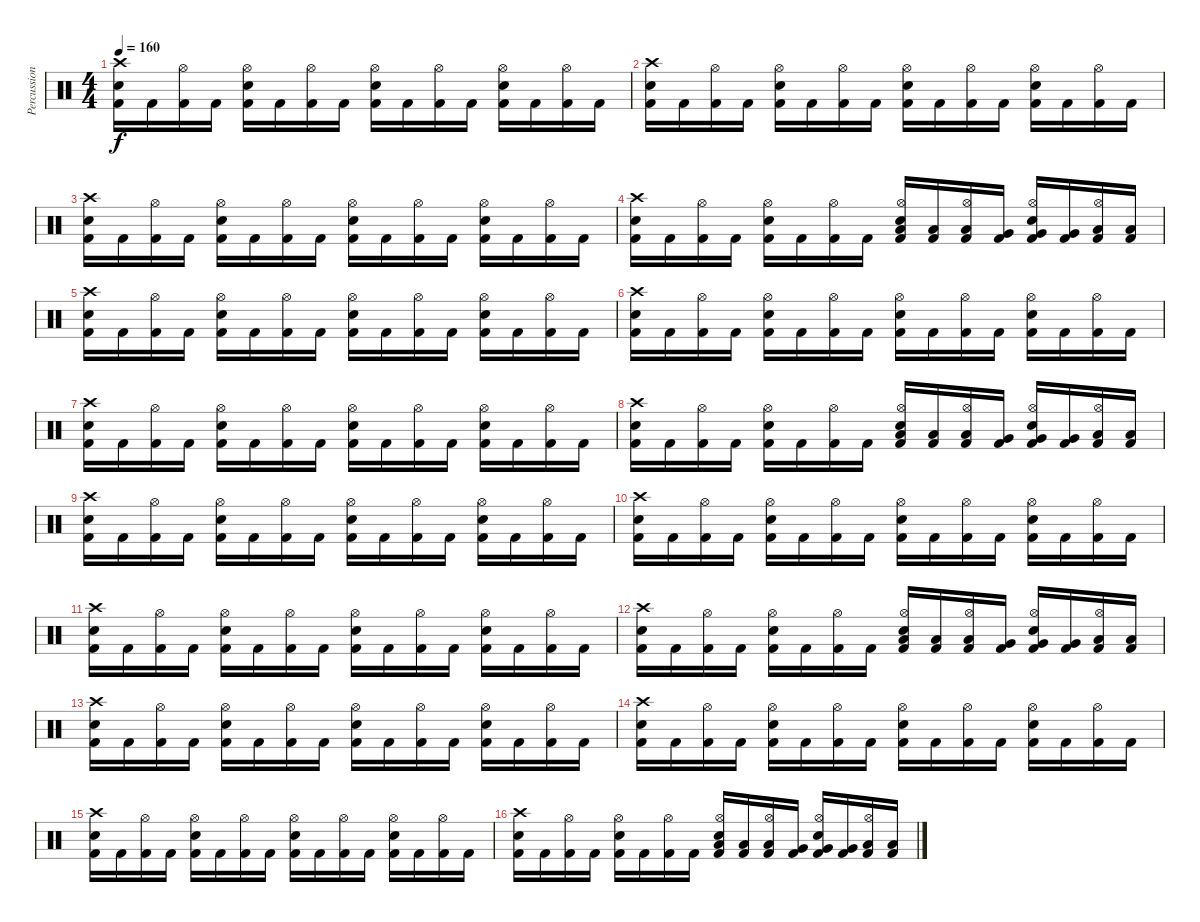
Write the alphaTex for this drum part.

\track ("Percussion" "Percussion") {instrument percussion}
\staff {score}
\articulation defaults
\ts (4 4)
\tempo 160
\clef neutral
\ks c
("Crash high (hit)" "Electric Snare (hit)" "Kick (hit) 2").16{dy f} "Kick (hit) 2".16 ("Hi-Hat (open)" "Kick (hit) 2").16 "Kick (hit) 2".16 ("Hi-Hat (open)" "Electric Snare (hit)" "Kick (hit) 2").16 "Kick (hit) 2".16 ("Hi-Hat (open)" "Kick (hit) 2").16 "Kick (hit) 2".16 ("Hi-Hat (open)" "Electric Snare (hit)" "Kick (hit) 2").16 "Kick (hit) 2".16 ("Hi-Hat (open)" "Kick (hit) 2").16 "Kick (hit) 2".16 ("Hi-Hat (open)" "Electric Snare (hit)" "Kick (hit) 2").16 "Kick (hit) 2".16 ("Hi-Hat (open)" "Kick (hit) 2").16 "Kick (hit) 2".16 |
("Crash high (hit)" "Electric Snare (hit)" "Kick (hit) 2").16 "Kick (hit) 2".16 ("Hi-Hat (open)" "Kick (hit) 2").16 "Kick (hit) 2".16 ("Hi-Hat (open)" "Electric Snare (hit)" "Kick (hit) 2").16 "Kick (hit) 2".16 ("Hi-Hat (open)" "Kick (hit) 2").16 "Kick (hit) 2".16 ("Hi-Hat (open)" "Electric Snare (hit)" "Kick (hit) 2").16 "Kick (hit) 2".16 ("Hi-Hat (open)" "Kick (hit) 2").16 "Kick (hit) 2".16 ("Hi-Hat (open)" "Electric Snare (hit)" "Kick (hit) 2").16 "Kick (hit) 2".16 ("Hi-Hat (open)" "Kick (hit) 2").16 "Kick (hit) 2".16 |
("Crash high (hit)" "Electric Snare (hit)" "Kick (hit) 2").16 "Kick (hit) 2".16 ("Hi-Hat (open)" "Kick (hit) 2").16 "Kick (hit) 2".16 ("Hi-Hat (open)" "Electric Snare (hit)" "Kick (hit) 2").16 "Kick (hit) 2".16 ("Hi-Hat (open)" "Kick (hit) 2").16 "Kick (hit) 2".16 ("Hi-Hat (open)" "Electric Snare (hit)" "Kick (hit) 2").16 "Kick (hit) 2".16 ("Hi-Hat (open)" "Kick (hit) 2").16 "Kick (hit) 2".16 ("Hi-Hat (open)" "Electric Snare (hit)" "Kick (hit) 2").16 "Kick (hit) 2".16 ("Hi-Hat (open)" "Kick (hit) 2").16 "Kick (hit) 2".16 |
("Crash high (hit)" "Electric Snare (hit)" "Kick (hit) 2").16 "Kick (hit) 2".16 ("Hi-Hat (open)" "Kick (hit) 2").16 "Kick (hit) 2".16 ("Hi-Hat (open)" "Electric Snare (hit)" "Kick (hit) 2").16 "Kick (hit) 2".16 ("Hi-Hat (open)" "Kick (hit) 2").16 "Kick (hit) 2".16 ("Hi-Hat (open)" "Low Tom (hit)" "Electric Snare (hit)" "Kick (hit) 2").16 ("Low Tom (hit)" "Kick (hit) 2").16 ("Hi-Hat (open)" "Low Tom (hit)" "Kick (hit) 2").16 ("Very Low Tom (hit)" "Kick (hit) 2").16 ("Hi-Hat (open)" "Very Low Tom (hit)" "Electric Snare (hit)" "Kick (hit) 2").16 ("Very Low Tom (hit)" "Kick (hit) 2").16 ("Hi-Hat (open)" "Low Floor Tom (hit)" "Kick (hit) 2").16 ("Low Floor Tom (hit)" "Kick (hit) 2").16 |
("Crash high (hit)" "Electric Snare (hit)" "Kick (hit) 2").16 "Kick (hit) 2".16 ("Hi-Hat (open)" "Kick (hit) 2").16 "Kick (hit) 2".16 ("Hi-Hat (open)" "Electric Snare (hit)" "Kick (hit) 2").16 "Kick (hit) 2".16 ("Hi-Hat (open)" "Kick (hit) 2").16 "Kick (hit) 2".16 ("Hi-Hat (open)" "Electric Snare (hit)" "Kick (hit) 2").16 "Kick (hit) 2".16 ("Hi-Hat (open)" "Kick (hit) 2").16 "Kick (hit) 2".16 ("Hi-Hat (open)" "Electric Snare (hit)" "Kick (hit) 2").16 "Kick (hit) 2".16 ("Hi-Hat (open)" "Kick (hit) 2").16 "Kick (hit) 2".16 |
("Crash high (hit)" "Electric Snare (hit)" "Kick (hit) 2").16 "Kick (hit) 2".16 ("Hi-Hat (open)" "Kick (hit) 2").16 "Kick (hit) 2".16 ("Hi-Hat (open)" "Electric Snare (hit)" "Kick (hit) 2").16 "Kick (hit) 2".16 ("Hi-Hat (open)" "Kick (hit) 2").16 "Kick (hit) 2".16 ("Hi-Hat (open)" "Electric Snare (hit)" "Kick (hit) 2").16 "Kick (hit) 2".16 ("Hi-Hat (open)" "Kick (hit) 2").16 "Kick (hit) 2".16 ("Hi-Hat (open)" "Electric Snare (hit)" "Kick (hit) 2").16 "Kick (hit) 2".16 ("Hi-Hat (open)" "Kick (hit) 2").16 "Kick (hit) 2".16 |
("Crash high (hit)" "Electric Snare (hit)" "Kick (hit) 2").16 "Kick (hit) 2".16 ("Hi-Hat (open)" "Kick (hit) 2").16 "Kick (hit) 2".16 ("Hi-Hat (open)" "Electric Snare (hit)" "Kick (hit) 2").16 "Kick (hit) 2".16 ("Hi-Hat (open)" "Kick (hit) 2").16 "Kick (hit) 2".16 ("Hi-Hat (open)" "Electric Snare (hit)" "Kick (hit) 2").16 "Kick (hit) 2".16 ("Hi-Hat (open)" "Kick (hit) 2").16 "Kick (hit) 2".16 ("Hi-Hat (open)" "Electric Snare (hit)" "Kick (hit) 2").16 "Kick (hit) 2".16 ("Hi-Hat (open)" "Kick (hit) 2").16 "Kick (hit) 2".16 |
("Crash high (hit)" "Electric Snare (hit)" "Kick (hit) 2").16 "Kick (hit) 2".16 ("Hi-Hat (open)" "Kick (hit) 2").16 "Kick (hit) 2".16 ("Hi-Hat (open)" "Electric Snare (hit)" "Kick (hit) 2").16 "Kick (hit) 2".16 ("Hi-Hat (open)" "Kick (hit) 2").16 "Kick (hit) 2".16 ("Hi-Hat (open)" "Low Tom (hit)" "Electric Snare (hit)" "Kick (hit) 2").16 ("Low Tom (hit)" "Kick (hit) 2").16 ("Hi-Hat (open)" "Low Tom (hit)" "Kick (hit) 2").16 ("Very Low Tom (hit)" "Kick (hit) 2").16 ("Hi-Hat (open)" "Very Low Tom (hit)" "Electric Snare (hit)" "Kick (hit) 2").16 ("Very Low Tom (hit)" "Kick (hit) 2").16 ("Hi-Hat (open)" "Low Floor Tom (hit)" "Kick (hit) 2").16 ("Low Floor Tom (hit)" "Kick (hit) 2").16 |
("Crash high (hit)" "Electric Snare (hit)" "Kick (hit) 2").16 "Kick (hit) 2".16 ("Hi-Hat (open)" "Kick (hit) 2").16 "Kick (hit) 2".16 ("Hi-Hat (open)" "Electric Snare (hit)" "Kick (hit) 2").16 "Kick (hit) 2".16 ("Hi-Hat (open)" "Kick (hit) 2").16 "Kick (hit) 2".16 ("Hi-Hat (open)" "Electric Snare (hit)" "Kick (hit) 2").16 "Kick (hit) 2".16 ("Hi-Hat (open)" "Kick (hit) 2").16 "Kick (hit) 2".16 ("Hi-Hat (open)" "Electric Snare (hit)" "Kick (hit) 2").16 "Kick (hit) 2".16 ("Hi-Hat (open)" "Kick (hit) 2").16 "Kick (hit) 2".16 |
("Crash high (hit)" "Electric Snare (hit)" "Kick (hit) 2").16 "Kick (hit) 2".16 ("Hi-Hat (open)" "Kick (hit) 2").16 "Kick (hit) 2".16 ("Hi-Hat (open)" "Electric Snare (hit)" "Kick (hit) 2").16 "Kick (hit) 2".16 ("Hi-Hat (open)" "Kick (hit) 2").16 "Kick (hit) 2".16 ("Hi-Hat (open)" "Electric Snare (hit)" "Kick (hit) 2").16 "Kick (hit) 2".16 ("Hi-Hat (open)" "Kick (hit) 2").16 "Kick (hit) 2".16 ("Hi-Hat (open)" "Electric Snare (hit)" "Kick (hit) 2").16 "Kick (hit) 2".16 ("Hi-Hat (open)" "Kick (hit) 2").16 "Kick (hit) 2".16 |
("Crash high (hit)" "Electric Snare (hit)" "Kick (hit) 2").16 "Kick (hit) 2".16 ("Hi-Hat (open)" "Kick (hit) 2").16 "Kick (hit) 2".16 ("Hi-Hat (open)" "Electric Snare (hit)" "Kick (hit) 2").16 "Kick (hit) 2".16 ("Hi-Hat (open)" "Kick (hit) 2").16 "Kick (hit) 2".16 ("Hi-Hat (open)" "Electric Snare (hit)" "Kick (hit) 2").16 "Kick (hit) 2".16 ("Hi-Hat (open)" "Kick (hit) 2").16 "Kick (hit) 2".16 ("Hi-Hat (open)" "Electric Snare (hit)" "Kick (hit) 2").16 "Kick (hit) 2".16 ("Hi-Hat (open)" "Kick (hit) 2").16 "Kick (hit) 2".16 |
("Crash high (hit)" "Electric Snare (hit)" "Kick (hit) 2").16 "Kick (hit) 2".16 ("Hi-Hat (open)" "Kick (hit) 2").16 "Kick (hit) 2".16 ("Hi-Hat (open)" "Electric Snare (hit)" "Kick (hit) 2").16 "Kick (hit) 2".16 ("Hi-Hat (open)" "Kick (hit) 2").16 "Kick (hit) 2".16 ("Hi-Hat (open)" "Low Tom (hit)" "Electric Snare (hit)" "Kick (hit) 2").16 ("Low Tom (hit)" "Kick (hit) 2").16 ("Hi-Hat (open)" "Low Tom (hit)" "Kick (hit) 2").16 ("Very Low Tom (hit)" "Kick (hit) 2").16 ("Hi-Hat (open)" "Very Low Tom (hit)" "Electric Snare (hit)" "Kick (hit) 2").16 ("Very Low Tom (hit)" "Kick (hit) 2").16 ("Hi-Hat (open)" "Low Floor Tom (hit)" "Kick (hit) 2").16 ("Low Floor Tom (hit)" "Kick (hit) 2").16 |
("Crash high (hit)" "Electric Snare (hit)" "Kick (hit) 2").16 "Kick (hit) 2".16 ("Hi-Hat (open)" "Kick (hit) 2").16 "Kick (hit) 2".16 ("Hi-Hat (open)" "Electric Snare (hit)" "Kick (hit) 2").16 "Kick (hit) 2".16 ("Hi-Hat (open)" "Kick (hit) 2").16 "Kick (hit) 2".16 ("Hi-Hat (open)" "Electric Snare (hit)" "Kick (hit) 2").16 "Kick (hit) 2".16 ("Hi-Hat (open)" "Kick (hit) 2").16 "Kick (hit) 2".16 ("Hi-Hat (open)" "Electric Snare (hit)" "Kick (hit) 2").16 "Kick (hit) 2".16 ("Hi-Hat (open)" "Kick (hit) 2").16 "Kick (hit) 2".16 |
("Crash high (hit)" "Electric Snare (hit)" "Kick (hit) 2").16 "Kick (hit) 2".16 ("Hi-Hat (open)" "Kick (hit) 2").16 "Kick (hit) 2".16 ("Hi-Hat (open)" "Electric Snare (hit)" "Kick (hit) 2").16 "Kick (hit) 2".16 ("Hi-Hat (open)" "Kick (hit) 2").16 "Kick (hit) 2".16 ("Hi-Hat (open)" "Electric Snare (hit)" "Kick (hit) 2").16 "Kick (hit) 2".16 ("Hi-Hat (open)" "Kick (hit) 2").16 "Kick (hit) 2".16 ("Hi-Hat (open)" "Electric Snare (hit)" "Kick (hit) 2").16 "Kick (hit) 2".16 ("Hi-Hat (open)" "Kick (hit) 2").16 "Kick (hit) 2".16 |
("Crash high (hit)" "Electric Snare (hit)" "Kick (hit) 2").16 "Kick (hit) 2".16 ("Hi-Hat (open)" "Kick (hit) 2").16 "Kick (hit) 2".16 ("Hi-Hat (open)" "Electric Snare (hit)" "Kick (hit) 2").16 "Kick (hit) 2".16 ("Hi-Hat (open)" "Kick (hit) 2").16 "Kick (hit) 2".16 ("Hi-Hat (open)" "Electric Snare (hit)" "Kick (hit) 2").16 "Kick (hit) 2".16 ("Hi-Hat (open)" "Kick (hit) 2").16 "Kick (hit) 2".16 ("Hi-Hat (open)" "Electric Snare (hit)" "Kick (hit) 2").16 "Kick (hit) 2".16 ("Hi-Hat (open)" "Kick (hit) 2").16 "Kick (hit) 2".16 |
("Crash high (hit)" "Electric Snare (hit)" "Kick (hit) 2").16 "Kick (hit) 2".16 ("Hi-Hat (open)" "Kick (hit) 2").16 "Kick (hit) 2".16 ("Hi-Hat (open)" "Electric Snare (hit)" "Kick (hit) 2").16 "Kick (hit) 2".16 ("Hi-Hat (open)" "Kick (hit) 2").16 "Kick (hit) 2".16 ("Hi-Hat (open)" "Low Tom (hit)" "Electric Snare (hit)" "Kick (hit) 2").16 ("Low Tom (hit)" "Kick (hit) 2").16 ("Hi-Hat (open)" "Low Tom (hit)" "Kick (hit) 2").16 ("Very Low Tom (hit)" "Kick (hit) 2").16 ("Hi-Hat (open)" "Very Low Tom (hit)" "Electric Snare (hit)" "Kick (hit) 2").16 ("Very Low Tom (hit)" "Kick (hit) 2").16 ("Hi-Hat (open)" "Low Floor Tom (hit)" "Kick (hit) 2").16 ("Low Floor Tom (hit)" "Kick (hit) 2").16
